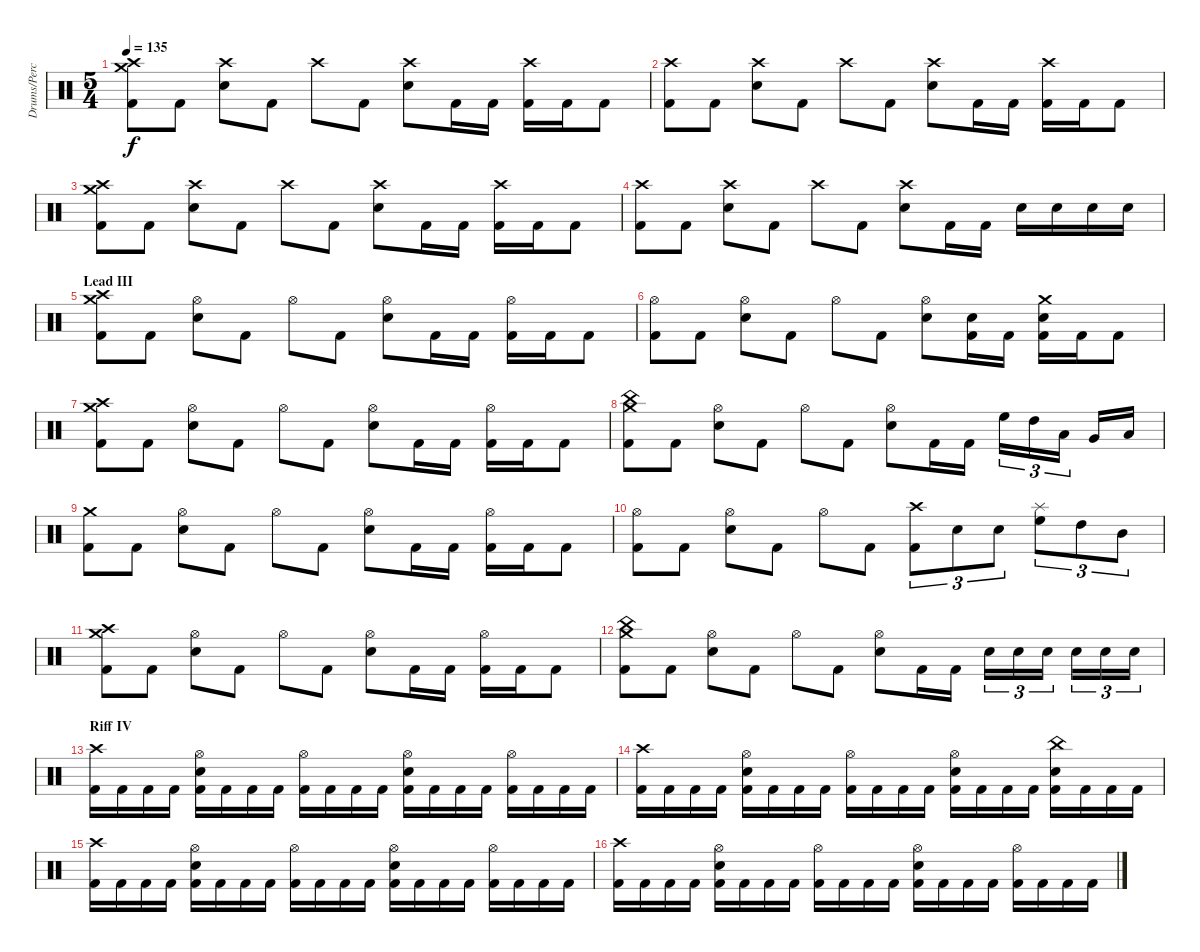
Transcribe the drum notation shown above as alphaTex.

\track ("Drums/Percussion" "Drums/Perc") {instrument percussion}
\staff {score}
\articulation defaults
\ts (5 4)
\tempo 135
\clef neutral
\ks c
("Crash medium (hit)" "Crash high (hit)" "Kick (hit) 2").8{dy f} "Kick (hit) 2".8 ("Crash high (hit)" "Snare (hit) 2").8 "Kick (hit) 2".8 "Crash high (hit)".8 "Kick (hit) 2".8 ("Crash high (hit)" "Snare (hit) 2").8 "Kick (hit) 2".16 "Kick (hit) 2".16 ("Crash high (hit)" "Kick (hit) 2").16 "Kick (hit) 2".16 "Kick (hit) 2".8 |
("Crash high (hit)" "Kick (hit) 2").8 "Kick (hit) 2".8 ("Crash high (hit)" "Snare (hit) 2").8 "Kick (hit) 2".8 "Crash high (hit)".8 "Kick (hit) 2".8 ("Crash high (hit)" "Snare (hit) 2").8 "Kick (hit) 2".16 "Kick (hit) 2".16 ("Crash high (hit)" "Kick (hit) 2").16 "Kick (hit) 2".16 "Kick (hit) 2".8 |
("Crash medium (hit)" "Crash high (hit)" "Kick (hit) 2").8 "Kick (hit) 2".8 ("Crash high (hit)" "Snare (hit) 2").8 "Kick (hit) 2".8 "Crash high (hit)".8 "Kick (hit) 2".8 ("Crash high (hit)" "Snare (hit) 2").8 "Kick (hit) 2".16 "Kick (hit) 2".16 ("Crash high (hit)" "Kick (hit) 2").16 "Kick (hit) 2".16 "Kick (hit) 2".8 |
("Crash high (hit)" "Kick (hit) 2").8 "Kick (hit) 2".8 ("Crash high (hit)" "Snare (hit) 2").8 "Kick (hit) 2".8 "Crash high (hit)".8 "Kick (hit) 2".8 ("Crash high (hit)" "Snare (hit) 2").8 "Kick (hit) 2".16 "Kick (hit) 2".16 "Snare (hit) 2".16 "Snare (hit) 2".16 "Snare (hit) 2".16 "Snare (hit) 2".16 |
\section ("" "Lead III")
("Crash medium (hit)" "Crash high (hit)" "Kick (hit) 2").8 "Kick (hit) 2".8 ("Hi-Hat (open)" "Snare (hit) 2").8 "Kick (hit) 2".8 "Hi-Hat (open)".8 "Kick (hit) 2".8 ("Hi-Hat (open)" "Snare (hit) 2").8 "Kick (hit) 2".16 "Kick (hit) 2".16 ("Hi-Hat (open)" "Kick (hit) 2").16 "Kick (hit) 2".16 "Kick (hit) 2".8 |
("Hi-Hat (open)" "Kick (hit) 2").8 "Kick (hit) 2".8 ("Hi-Hat (open)" "Snare (hit) 2").8 "Kick (hit) 2".8 "Hi-Hat (open)".8 "Kick (hit) 2".8 ("Hi-Hat (open)" "Snare (hit) 2").8 ("Snare (hit) 2" "Kick (hit) 2").16 "Kick (hit) 2".16 ("Crash medium (hit)" "Snare (hit) 2" "Kick (hit) 2").16 "Kick (hit) 2".16 "Kick (hit) 2".8 |
("Crash medium (hit)" "Crash high (hit)" "Kick (hit) 2").8 "Kick (hit) 2".8 ("Hi-Hat (open)" "Snare (hit) 2").8 "Kick (hit) 2".8 "Hi-Hat (open)".8 "Kick (hit) 2".8 ("Hi-Hat (open)" "Snare (hit) 2").8 "Kick (hit) 2".16 "Kick (hit) 2".16 ("Hi-Hat (open)" "Kick (hit) 2").16 "Kick (hit) 2".16 "Kick (hit) 2".8 |
("Crash medium (hit)" "China (hit)" "Kick (hit) 2").8 "Kick (hit) 2".8 ("Hi-Hat (open)" "Snare (hit) 2").8 "Kick (hit) 2".8 "Hi-Hat (open)".8 "Kick (hit) 2".8 ("Hi-Hat (open)" "Snare (hit) 2").8 "Kick (hit) 2".16 "Kick (hit) 2".16 "High Floor Tom (hit)".16{tu (3 2)} "High Tom (hit)".16{tu (3 2)} "Low Tom (hit)".16{tu (3 2)} "Very Low Tom (hit)".16 "Low Tom (hit)".16 |
("Crash medium (hit)" "Kick (hit) 2").8 "Kick (hit) 2".8 ("Hi-Hat (open)" "Snare (hit) 2").8 "Kick (hit) 2".8 "Hi-Hat (open)".8 "Kick (hit) 2".8 ("Hi-Hat (open)" "Snare (hit) 2").8 "Kick (hit) 2".16 "Kick (hit) 2".16 ("Hi-Hat (open)" "Kick (hit) 2").16 "Kick (hit) 2".16 "Kick (hit) 2".8 |
("Hi-Hat (open)" "Kick (hit) 2").8 "Kick (hit) 2".8 ("Hi-Hat (open)" "Snare (hit) 2").8 "Kick (hit) 2".8 "Hi-Hat (open)".8 "Kick (hit) 2".8 ("Crash high (hit)" "Kick (hit) 2").8{tu (3 2)} "Snare (hit) 2".8{tu (3 2)} "Snare (hit) 2".8{tu (3 2)} ("Splash (hit)" "High Floor Tom (hit)").8{tu (3 2)} "High Tom (hit)".8{tu (3 2)} "Mid Tom (hit)".8{tu (3 2)} |
("Crash medium (hit)" "Crash high (hit)" "Kick (hit) 2").8 "Kick (hit) 2".8 ("Hi-Hat (open)" "Snare (hit) 2").8 "Kick (hit) 2".8 "Hi-Hat (open)".8 "Kick (hit) 2".8 ("Hi-Hat (open)" "Snare (hit) 2").8 "Kick (hit) 2".16 "Kick (hit) 2".16 ("Hi-Hat (open)" "Kick (hit) 2").16 "Kick (hit) 2".16 "Kick (hit) 2".8 |
("Crash medium (hit)" "China (hit)" "Kick (hit) 2").8 "Kick (hit) 2".8 ("Hi-Hat (open)" "Snare (hit) 2").8 "Kick (hit) 2".8 "Hi-Hat (open)".8 "Kick (hit) 2".8 ("Hi-Hat (open)" "Snare (hit) 2").8 "Kick (hit) 2".16 "Kick (hit) 2".16 "Snare (hit) 2".16{tu (3 2)} "Snare (hit) 2".16{tu (3 2)} "Snare (hit) 2".16{tu (3 2)} "Snare (hit) 2".16{tu (3 2)} "Snare (hit) 2".16{tu (3 2)} "Snare (hit) 2".16{tu (3 2)} |
\section ("" "Riff IV")
("Crash high (hit)" "Kick (hit) 2").16 "Kick (hit) 2".16 "Kick (hit) 2".16 "Kick (hit) 2".16 ("Hi-Hat (open)" "Snare (hit) 2" "Kick (hit) 2").16 "Kick (hit) 2".16 "Kick (hit) 2".16 "Kick (hit) 2".16 ("Hi-Hat (open)" "Kick (hit) 2").16 "Kick (hit) 2".16 "Kick (hit) 2".16 "Kick (hit) 2".16 ("Hi-Hat (open)" "Snare (hit) 2" "Kick (hit) 2").16 "Kick (hit) 2".16 "Kick (hit) 2".16 "Kick (hit) 2".16 ("Hi-Hat (open)" "Kick (hit) 2").16 "Kick (hit) 2".16 "Kick (hit) 2".16 "Kick (hit) 2".16 |
("Crash high (hit)" "Kick (hit) 2").16 "Kick (hit) 2".16 "Kick (hit) 2".16 "Kick (hit) 2".16 ("Hi-Hat (open)" "Snare (hit) 2" "Kick (hit) 2").16 "Kick (hit) 2".16 "Kick (hit) 2".16 "Kick (hit) 2".16 ("Hi-Hat (open)" "Kick (hit) 2").16 "Kick (hit) 2".16 "Kick (hit) 2".16 "Kick (hit) 2".16 ("Hi-Hat (open)" "Snare (hit) 2" "Kick (hit) 2").16 "Kick (hit) 2".16 "Kick (hit) 2".16 "Kick (hit) 2".16 ("China (hit)" "Snare (hit) 2" "Kick (hit) 2").16 "Kick (hit) 2".16 "Kick (hit) 2".16 "Kick (hit) 2".16 |
("Crash high (hit)" "Kick (hit) 2").16 "Kick (hit) 2".16 "Kick (hit) 2".16 "Kick (hit) 2".16 ("Hi-Hat (open)" "Snare (hit) 2" "Kick (hit) 2").16 "Kick (hit) 2".16 "Kick (hit) 2".16 "Kick (hit) 2".16 ("Hi-Hat (open)" "Kick (hit) 2").16 "Kick (hit) 2".16 "Kick (hit) 2".16 "Kick (hit) 2".16 ("Hi-Hat (open)" "Snare (hit) 2" "Kick (hit) 2").16 "Kick (hit) 2".16 "Kick (hit) 2".16 "Kick (hit) 2".16 ("Hi-Hat (open)" "Kick (hit) 2").16 "Kick (hit) 2".16 "Kick (hit) 2".16 "Kick (hit) 2".16 |
("Crash high (hit)" "Kick (hit) 2").16 "Kick (hit) 2".16 "Kick (hit) 2".16 "Kick (hit) 2".16 ("Hi-Hat (open)" "Snare (hit) 2" "Kick (hit) 2").16 "Kick (hit) 2".16 "Kick (hit) 2".16 "Kick (hit) 2".16 ("Hi-Hat (open)" "Kick (hit) 2").16 "Kick (hit) 2".16 "Kick (hit) 2".16 "Kick (hit) 2".16 ("Hi-Hat (open)" "Snare (hit) 2" "Kick (hit) 2").16 "Kick (hit) 2".16 "Kick (hit) 2".16 "Kick (hit) 2".16 ("Hi-Hat (open)" "Kick (hit) 2").16 "Kick (hit) 2".16 "Kick (hit) 2".16 "Kick (hit) 2".16
